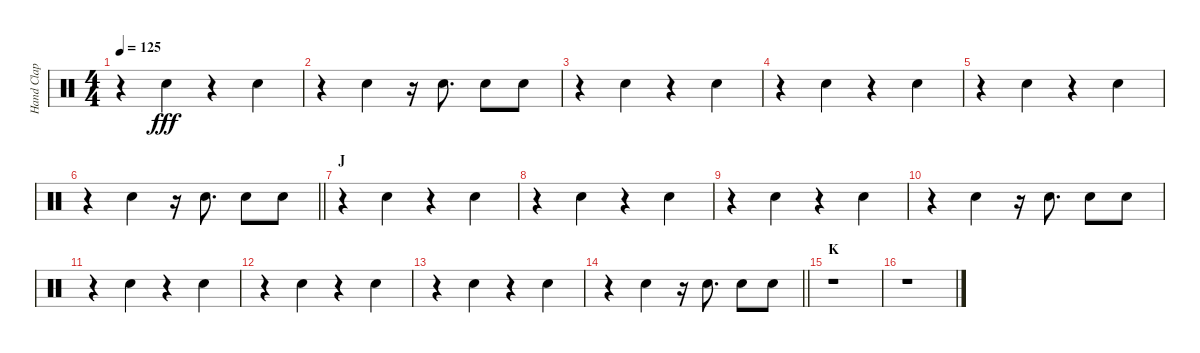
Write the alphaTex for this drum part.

\track ("Hand Clap" "Hand Clap") {instrument percussion}
\staff {score}
\articulation defaults
\ts (4 4)
\tempo 125
\clef neutral
\ks c
r.4{dy fff} "Hand Clap (hit)".4 r.4 "Hand Clap (hit)".4 |
r.4 "Hand Clap (hit)".4 r.16 "Hand Clap (hit)".8{d} "Hand Clap (hit)".8 "Hand Clap (hit)".8 |
r.4 "Hand Clap (hit)".4 r.4 "Hand Clap (hit)".4 |
r.4 "Hand Clap (hit)".4 r.4 "Hand Clap (hit)".4 |
r.4 "Hand Clap (hit)".4 r.4 "Hand Clap (hit)".4 |
\barLineRight lightlight
r.4 "Hand Clap (hit)".4 r.16 "Hand Clap (hit)".8{d} "Hand Clap (hit)".8 "Hand Clap (hit)".8 |
\section ("" "J")
r.4 "Hand Clap (hit)".4 r.4 "Hand Clap (hit)".4 |
r.4 "Hand Clap (hit)".4 r.4 "Hand Clap (hit)".4 |
r.4 "Hand Clap (hit)".4 r.4 "Hand Clap (hit)".4 |
r.4 "Hand Clap (hit)".4 r.16 "Hand Clap (hit)".8{d} "Hand Clap (hit)".8 "Hand Clap (hit)".8 |
r.4 "Hand Clap (hit)".4 r.4 "Hand Clap (hit)".4 |
r.4 "Hand Clap (hit)".4 r.4 "Hand Clap (hit)".4 |
r.4 "Hand Clap (hit)".4 r.4 "Hand Clap (hit)".4 |
\barLineRight lightlight
r.4 "Hand Clap (hit)".4 r.16 "Hand Clap (hit)".8{d} "Hand Clap (hit)".8 "Hand Clap (hit)".8 |
\section ("" "K")
r.1 |
r.1
